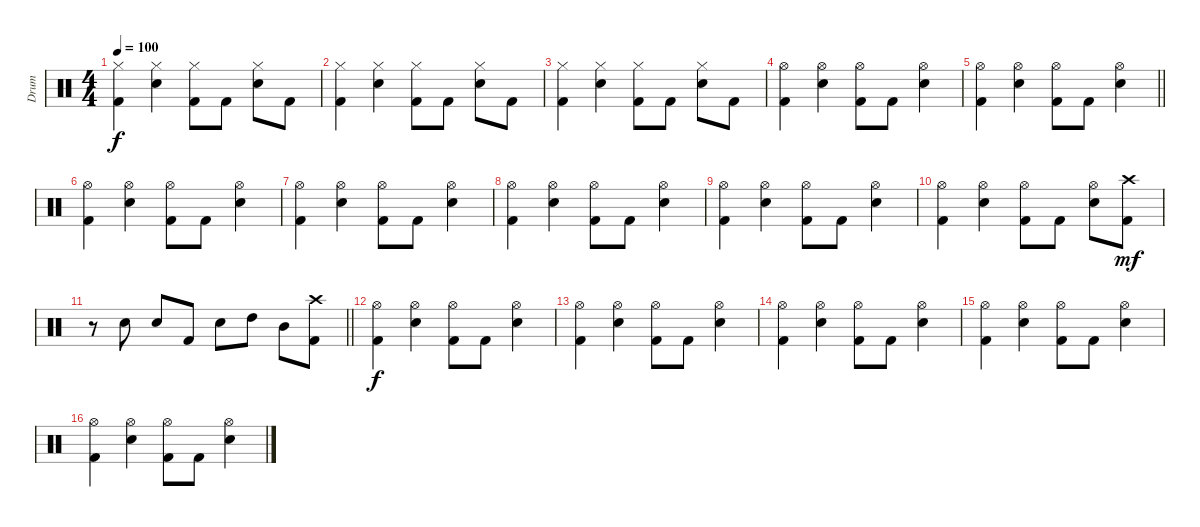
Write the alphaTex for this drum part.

\track ("Drum" "Drum") {instrument percussion}
\staff {score}
\articulation defaults
\ts (4 4)
\tempo 100
\clef neutral
\ks c
("Hi-Hat (closed)" "Kick (hit) 2").4{dy f} ("Hi-Hat (closed)" "Snare (hit) 2").4 ("Hi-Hat (closed)" "Kick (hit) 2").8 "Kick (hit) 2".8 ("Snare (hit) 2" "Hi-Hat (closed)").8 "Kick (hit) 2".8 |
("Hi-Hat (closed)" "Kick (hit) 2").4 ("Hi-Hat (closed)" "Snare (hit) 2").4 ("Hi-Hat (closed)" "Kick (hit) 2").8 "Kick (hit) 2".8 ("Snare (hit) 2" "Hi-Hat (closed)").8 "Kick (hit) 2".8 |
("Hi-Hat (closed)" "Kick (hit) 2").4 ("Hi-Hat (closed)" "Snare (hit) 2").4 ("Hi-Hat (closed)" "Kick (hit) 2").8 "Kick (hit) 2".8 ("Snare (hit) 2" "Hi-Hat (closed)").8 "Kick (hit) 2".8 |
("Kick (hit) 2" "Hi-Hat (open)").4 ("Snare (hit) 2" "Hi-Hat (open)").4 ("Kick (hit) 2" "Hi-Hat (open)").8 "Kick (hit) 2".8 ("Snare (hit) 2" "Hi-Hat (open)").4 |
\barLineRight lightlight
("Kick (hit) 2" "Hi-Hat (open)").4 ("Snare (hit) 2" "Hi-Hat (open)").4 ("Kick (hit) 2" "Hi-Hat (open)").8 "Kick (hit) 2".8 ("Snare (hit) 2" "Hi-Hat (open)").4 |
("Kick (hit) 2" "Hi-Hat (open)").4 ("Snare (hit) 2" "Hi-Hat (open)").4 ("Kick (hit) 2" "Hi-Hat (open)").8 "Kick (hit) 2".8 ("Snare (hit) 2" "Hi-Hat (open)").4 |
("Kick (hit) 2" "Hi-Hat (open)").4 ("Snare (hit) 2" "Hi-Hat (open)").4 ("Kick (hit) 2" "Hi-Hat (open)").8 "Kick (hit) 2".8 ("Snare (hit) 2" "Hi-Hat (open)").4 |
("Kick (hit) 2" "Hi-Hat (open)").4 ("Snare (hit) 2" "Hi-Hat (open)").4 ("Kick (hit) 2" "Hi-Hat (open)").8 "Kick (hit) 2".8 ("Snare (hit) 2" "Hi-Hat (open)").4 |
("Kick (hit) 2" "Hi-Hat (open)").4 ("Snare (hit) 2" "Hi-Hat (open)").4 ("Kick (hit) 2" "Hi-Hat (open)").8 "Kick (hit) 2".8 ("Snare (hit) 2" "Hi-Hat (open)").4 |
("Kick (hit) 2" "Hi-Hat (open)").4 ("Snare (hit) 2" "Hi-Hat (open)").4 ("Kick (hit) 2" "Hi-Hat (open)").8 "Kick (hit) 2".8 ("Snare (hit) 2" "Hi-Hat (open)").8 ("Kick (hit) 2" "Crash high (hit)").8{dy mf} |
\barLineRight lightlight
r.8 "Snare (hit) 2".8 "Snare (hit) 2".8 "Kick (hit) 2".8 "Snare (hit) 2".8 "High Tom (hit)".8 "Mid Tom (hit)".8 ("Kick (hit) 2" "Crash high (hit)").8 |
("Kick (hit) 2" "Hi-Hat (open)").4{dy f} ("Snare (hit) 2" "Hi-Hat (open)").4 ("Kick (hit) 2" "Hi-Hat (open)").8 "Kick (hit) 2".8 ("Snare (hit) 2" "Hi-Hat (open)").4 |
("Kick (hit) 2" "Hi-Hat (open)").4 ("Snare (hit) 2" "Hi-Hat (open)").4 ("Kick (hit) 2" "Hi-Hat (open)").8 "Kick (hit) 2".8 ("Snare (hit) 2" "Hi-Hat (open)").4 |
("Kick (hit) 2" "Hi-Hat (open)").4 ("Snare (hit) 2" "Hi-Hat (open)").4 ("Kick (hit) 2" "Hi-Hat (open)").8 "Kick (hit) 2".8 ("Snare (hit) 2" "Hi-Hat (open)").4 |
("Kick (hit) 2" "Hi-Hat (open)").4 ("Snare (hit) 2" "Hi-Hat (open)").4 ("Kick (hit) 2" "Hi-Hat (open)").8 "Kick (hit) 2".8 ("Snare (hit) 2" "Hi-Hat (open)").4 |
("Kick (hit) 2" "Hi-Hat (open)").4 ("Snare (hit) 2" "Hi-Hat (open)").4 ("Kick (hit) 2" "Hi-Hat (open)").8 "Kick (hit) 2".8 ("Snare (hit) 2" "Hi-Hat (open)").4
